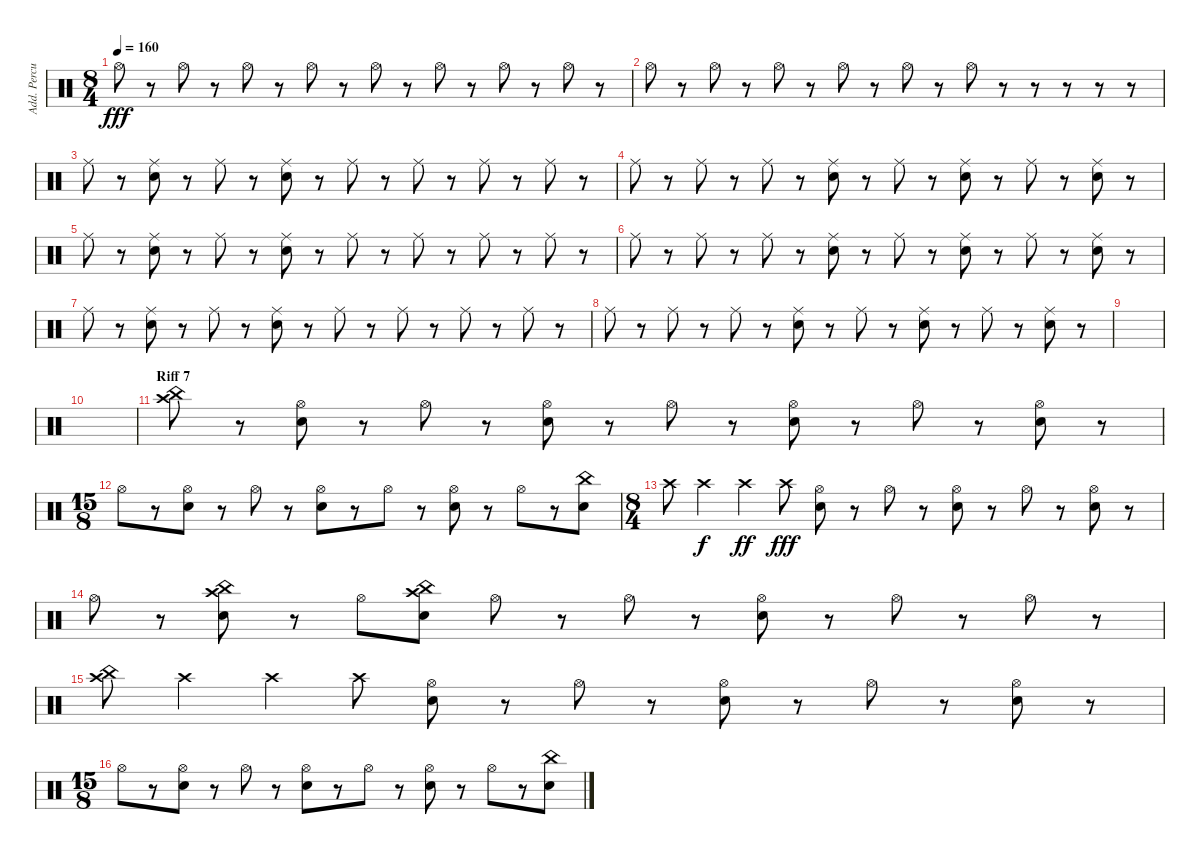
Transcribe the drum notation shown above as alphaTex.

\track ("Add. Percussion" "Add. Percu") {instrument percussion}
\staff {score}
\articulation defaults
\ts (8 4)
\tempo 160
\clef neutral
\ks c "Hi-Hat (open)".8{dy fff}
r.8 "Hi-Hat (open)".8 r.8 "Hi-Hat (open)".8 r.8 "Hi-Hat (open)".8 r.8 "Hi-Hat (open)".8 r.8 "Hi-Hat (open)".8 r.8 "Hi-Hat (open)".8 r.8 "Hi-Hat (open)".8 r.8 |
"Hi-Hat (open)".8 r.8 "Hi-Hat (open)".8 r.8 "Hi-Hat (open)".8 r.8 "Hi-Hat (open)".8 r.8 "Hi-Hat (open)".8 r.8 "Hi-Hat (open)".8 r.8 r.8 r.8 r.8 r.8 |
"Ride (middle)".8 r.8 ("Ride (middle)" "Electric Snare (hit)").8 r.8 "Ride (middle)".8 r.8 ("Ride (middle)" "Electric Snare (hit)").8 r.8 "Ride (middle)".8 r.8 "Ride (middle)".8 r.8 "Ride (middle)".8 r.8 "Ride (middle)".8 r.8 |
"Ride (middle)".8 r.8 "Ride (middle)".8 r.8 "Ride (middle)".8 r.8 ("Ride (middle)" "Electric Snare (hit)").8 r.8 "Ride (middle)".8 r.8 ("Ride (middle)" "Electric Snare (hit)").8 r.8 "Ride (middle)".8 r.8 ("Ride (middle)" "Electric Snare (hit)").8 r.8 |
"Ride (middle)".8 r.8 ("Ride (middle)" "Electric Snare (hit)").8 r.8 "Ride (middle)".8 r.8 ("Ride (middle)" "Electric Snare (hit)").8 r.8 "Ride (middle)".8 r.8 "Ride (middle)".8 r.8 "Ride (middle)".8 r.8 "Ride (middle)".8 r.8 |
"Ride (middle)".8 r.8 "Ride (middle)".8 r.8 "Ride (middle)".8 r.8 ("Ride (middle)" "Electric Snare (hit)").8 r.8 "Ride (middle)".8 r.8 ("Ride (middle)" "Electric Snare (hit)").8 r.8 "Ride (middle)".8 r.8 ("Ride (middle)" "Electric Snare (hit)").8 r.8 |
"Ride (middle)".8 r.8 ("Ride (middle)" "Electric Snare (hit)").8 r.8 "Ride (middle)".8 r.8 ("Ride (middle)" "Electric Snare (hit)").8 r.8 "Ride (middle)".8 r.8 "Ride (middle)".8 r.8 "Ride (middle)".8 r.8 "Ride (middle)".8 r.8 |
"Ride (middle)".8 r.8 "Ride (middle)".8 r.8 "Ride (middle)".8 r.8 ("Ride (middle)" "Electric Snare (hit)").8 r.8 "Ride (middle)".8 r.8 ("Ride (middle)" "Electric Snare (hit)").8 r.8 "Ride (middle)".8 r.8 ("Ride (middle)" "Electric Snare (hit)").8 r.8 |
|
|
\section ("" "Riff 7")
("China (hit)" "Crash high (hit)").8 r.8 ("Hi-Hat (open)" "Electric Snare (hit)").8 r.8 "Hi-Hat (open)".8 r.8 ("Hi-Hat (open)" "Electric Snare (hit)").8 r.8 "Hi-Hat (open)".8 r.8 ("Hi-Hat (open)" "Electric Snare (hit)").8 r.8 "Hi-Hat (open)".8 r.8 ("Hi-Hat (open)" "Electric Snare (hit)").8 r.8 |
\ts (15 8)
"Hi-Hat (open)".8 r.8 ("Hi-Hat (open)" "Electric Snare (hit)").8 r.8 "Hi-Hat (open)".8 r.8 ("Hi-Hat (open)" "Electric Snare (hit)").8 r.8 "Hi-Hat (open)".8 r.8 ("Hi-Hat (open)" "Electric Snare (hit)").8 r.8 "Hi-Hat (open)".8 r.8 ("China (hit)" "Electric Snare (hit)").8 |
\ts (8 4)
"Crash high (hit)".8 "Crash high (hit)".4{dy f} "Crash high (hit)".4{dy ff} "Crash high (hit)".8{dy fff} ("Hi-Hat (open)" "Electric Snare (hit)").8 r.8 "Hi-Hat (open)".8 r.8 ("Hi-Hat (open)" "Electric Snare (hit)").8 r.8 "Hi-Hat (open)".8 r.8 ("Hi-Hat (open)" "Electric Snare (hit)").8 r.8 |
"Hi-Hat (open)".8 r.8 ("China (hit)" "Crash high (hit)" "Electric Snare (hit)").8 r.8 "Hi-Hat (open)".8 ("China (hit)" "Crash high (hit)" "Electric Snare (hit)").8 "Hi-Hat (open)".8 r.8 "Hi-Hat (open)".8 r.8 ("Hi-Hat (open)" "Electric Snare (hit)").8 r.8 "Hi-Hat (open)".8 r.8 "Hi-Hat (open)".8 r.8 |
("China (hit)" "Crash high (hit)").8 "Crash high (hit)".4 "Crash high (hit)".4 "Crash high (hit)".8 ("Hi-Hat (open)" "Electric Snare (hit)").8 r.8 "Hi-Hat (open)".8 r.8 ("Hi-Hat (open)" "Electric Snare (hit)").8 r.8 "Hi-Hat (open)".8 r.8 ("Hi-Hat (open)" "Electric Snare (hit)").8 r.8 |
\ts (15 8)
"Hi-Hat (open)".8 r.8 ("Hi-Hat (open)" "Electric Snare (hit)").8 r.8 "Hi-Hat (open)".8 r.8 ("Hi-Hat (open)" "Electric Snare (hit)").8 r.8 "Hi-Hat (open)".8 r.8 ("Hi-Hat (open)" "Electric Snare (hit)").8 r.8 "Hi-Hat (open)".8 r.8 ("China (hit)" "Electric Snare (hit)").8
